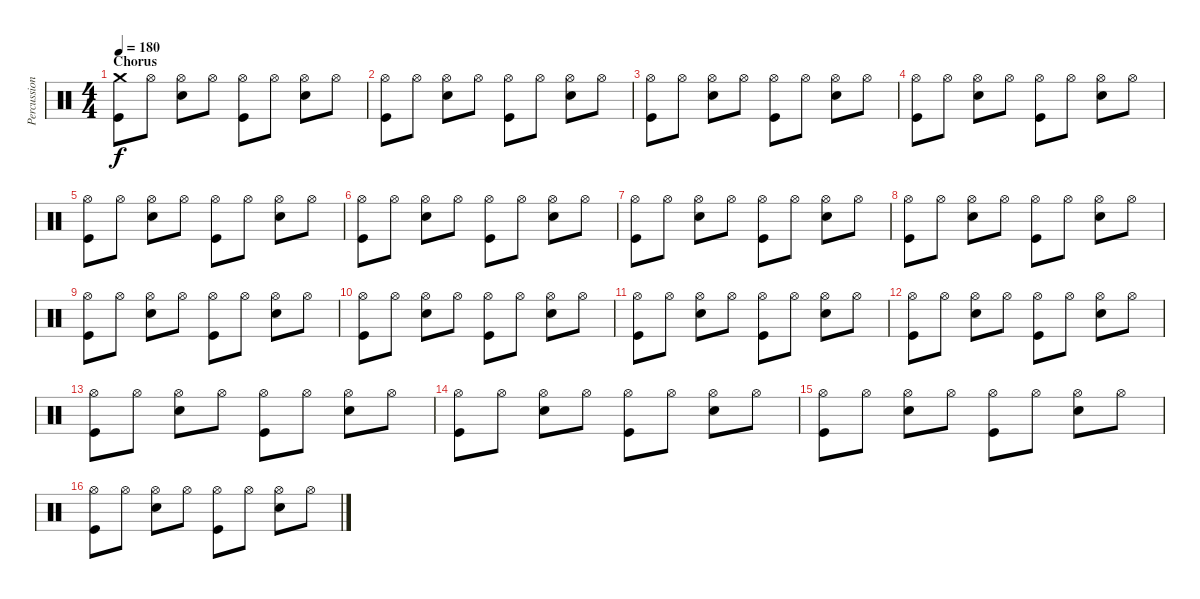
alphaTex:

\track ("Percussion" "Percussion") {instrument percussion}
\staff {score}
\articulation defaults
\ts (4 4)
\section ("" "Chorus")
\tempo 180
\clef neutral
\ks c
("Crash medium (hit)" "Kick (hit)").8{dy f} "Hi-Hat (open)".8 ("Hi-Hat (open)" "Snare (hit) 2").8 "Hi-Hat (open)".8 ("Hi-Hat (open)" "Kick (hit)").8 "Hi-Hat (open)".8 ("Hi-Hat (open)" "Snare (hit) 2").8 "Hi-Hat (open)".8 |
("Hi-Hat (open)" "Kick (hit)").8 "Hi-Hat (open)".8 ("Hi-Hat (open)" "Snare (hit) 2").8 "Hi-Hat (open)".8 ("Hi-Hat (open)" "Kick (hit)").8 "Hi-Hat (open)".8 ("Hi-Hat (open)" "Snare (hit) 2").8 "Hi-Hat (open)".8 |
("Hi-Hat (open)" "Kick (hit)").8 "Hi-Hat (open)".8 ("Hi-Hat (open)" "Snare (hit) 2").8 "Hi-Hat (open)".8 ("Hi-Hat (open)" "Kick (hit)").8 "Hi-Hat (open)".8 ("Hi-Hat (open)" "Snare (hit) 2").8 "Hi-Hat (open)".8 |
("Hi-Hat (open)" "Kick (hit)").8 "Hi-Hat (open)".8 ("Hi-Hat (open)" "Snare (hit) 2").8 "Hi-Hat (open)".8 ("Hi-Hat (open)" "Kick (hit)").8 "Hi-Hat (open)".8 ("Hi-Hat (open)" "Snare (hit) 2").8 "Hi-Hat (open)".8 |
("Hi-Hat (open)" "Kick (hit)").8 "Hi-Hat (open)".8 ("Hi-Hat (open)" "Snare (hit) 2").8 "Hi-Hat (open)".8 ("Hi-Hat (open)" "Kick (hit)").8 "Hi-Hat (open)".8 ("Hi-Hat (open)" "Snare (hit) 2").8 "Hi-Hat (open)".8 |
("Hi-Hat (open)" "Kick (hit)").8 "Hi-Hat (open)".8 ("Hi-Hat (open)" "Snare (hit) 2").8 "Hi-Hat (open)".8 ("Hi-Hat (open)" "Kick (hit)").8 "Hi-Hat (open)".8 ("Hi-Hat (open)" "Snare (hit) 2").8 "Hi-Hat (open)".8 |
("Hi-Hat (open)" "Kick (hit)").8 "Hi-Hat (open)".8 ("Hi-Hat (open)" "Snare (hit) 2").8 "Hi-Hat (open)".8 ("Hi-Hat (open)" "Kick (hit)").8 "Hi-Hat (open)".8 ("Hi-Hat (open)" "Snare (hit) 2").8 "Hi-Hat (open)".8 |
("Hi-Hat (open)" "Kick (hit)").8 "Hi-Hat (open)".8 ("Hi-Hat (open)" "Snare (hit) 2").8 "Hi-Hat (open)".8 ("Hi-Hat (open)" "Kick (hit)").8 "Hi-Hat (open)".8 ("Hi-Hat (open)" "Snare (hit) 2").8 "Hi-Hat (open)".8 |
("Hi-Hat (open)" "Kick (hit)").8 "Hi-Hat (open)".8 ("Hi-Hat (open)" "Snare (hit) 2").8 "Hi-Hat (open)".8 ("Hi-Hat (open)" "Kick (hit)").8 "Hi-Hat (open)".8 ("Hi-Hat (open)" "Snare (hit) 2").8 "Hi-Hat (open)".8 |
("Hi-Hat (open)" "Kick (hit)").8 "Hi-Hat (open)".8 ("Hi-Hat (open)" "Snare (hit) 2").8 "Hi-Hat (open)".8 ("Hi-Hat (open)" "Kick (hit)").8 "Hi-Hat (open)".8 ("Hi-Hat (open)" "Snare (hit) 2").8 "Hi-Hat (open)".8 |
("Hi-Hat (open)" "Kick (hit)").8 "Hi-Hat (open)".8 ("Hi-Hat (open)" "Snare (hit) 2").8 "Hi-Hat (open)".8 ("Hi-Hat (open)" "Kick (hit)").8 "Hi-Hat (open)".8 ("Hi-Hat (open)" "Snare (hit) 2").8 "Hi-Hat (open)".8 |
("Hi-Hat (open)" "Kick (hit)").8 "Hi-Hat (open)".8 ("Hi-Hat (open)" "Snare (hit) 2").8 "Hi-Hat (open)".8 ("Hi-Hat (open)" "Kick (hit)").8 "Hi-Hat (open)".8 ("Hi-Hat (open)" "Snare (hit) 2").8 "Hi-Hat (open)".8 |
("Hi-Hat (open)" "Kick (hit)").8 "Hi-Hat (open)".8 ("Hi-Hat (open)" "Snare (hit) 2").8 "Hi-Hat (open)".8 ("Hi-Hat (open)" "Kick (hit)").8 "Hi-Hat (open)".8 ("Hi-Hat (open)" "Snare (hit) 2").8 "Hi-Hat (open)".8 |
("Hi-Hat (open)" "Kick (hit)").8 "Hi-Hat (open)".8 ("Hi-Hat (open)" "Snare (hit) 2").8 "Hi-Hat (open)".8 ("Hi-Hat (open)" "Kick (hit)").8 "Hi-Hat (open)".8 ("Hi-Hat (open)" "Snare (hit) 2").8 "Hi-Hat (open)".8 |
("Hi-Hat (open)" "Kick (hit)").8 "Hi-Hat (open)".8 ("Hi-Hat (open)" "Snare (hit) 2").8 "Hi-Hat (open)".8 ("Hi-Hat (open)" "Kick (hit)").8 "Hi-Hat (open)".8 ("Hi-Hat (open)" "Snare (hit) 2").8 "Hi-Hat (open)".8 |
("Hi-Hat (open)" "Kick (hit)").8 "Hi-Hat (open)".8 ("Hi-Hat (open)" "Snare (hit) 2").8 "Hi-Hat (open)".8 ("Hi-Hat (open)" "Kick (hit)").8 "Hi-Hat (open)".8 ("Hi-Hat (open)" "Snare (hit) 2").8 "Hi-Hat (open)".8
